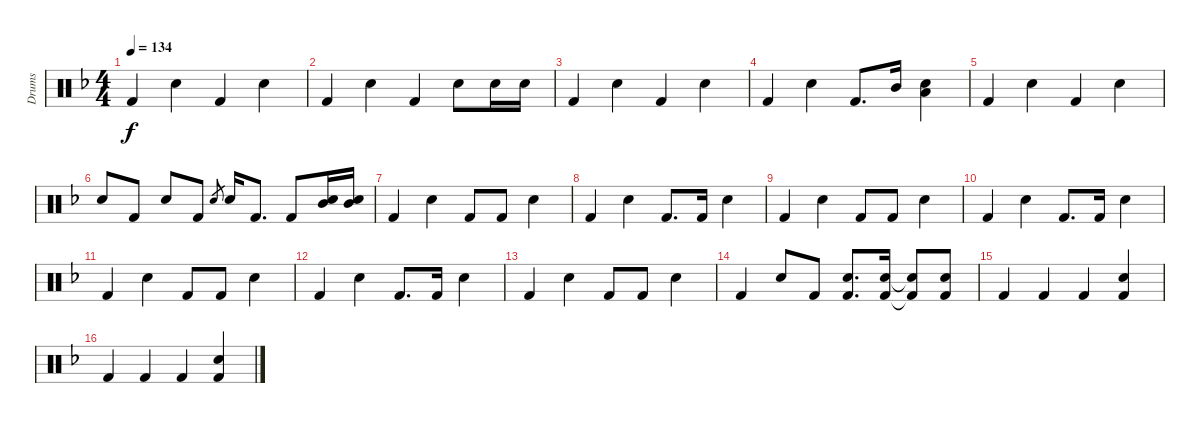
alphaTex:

\track ("Drums" "Drums") {instrument percussion}
\staff {score}
\articulation defaults
\ts (4 4)
\tempo 134
\clef neutral
\ks f "Kick (hit) 2".4{dy f} "Snare (hit) 2".4 "Kick (hit) 2".4 "Snare (hit) 2".4
|
"Kick (hit) 2".4 "Snare (hit) 2".4 "Kick (hit) 2".4 "Snare (hit) 2".8 "Snare (hit) 2".16 "Snare (hit) 2".16 |
"Kick (hit) 2".4 "Snare (hit) 2".4 "Kick (hit) 2".4 "Snare (hit) 2".4 |
"Kick (hit) 2".4 "Snare (hit) 2".4 "Kick (hit) 2".8{d} "Mid Tom (hit)".16 ("Snare (hit) 2" "Low Floor Tom (hit)").4 |
"Kick (hit) 2".4 "Snare (hit) 2".4 "Kick (hit) 2".4 "Snare (hit) 2".4 |
"Snare (hit) 2".8 "Kick (hit) 2".8 "Snare (hit) 2".8 "Kick (hit) 2".8 "Snare (hit) 2".8{gr} "Snare (hit) 2".16 "Kick (hit) 2".8{d} "Kick (hit) 2".8 ("Snare (hit) 2" "Mid Tom (hit)").16 ("Snare (hit) 2" "Mid Tom (hit)").16 |
"Kick (hit) 2".4 "Snare (hit) 2".4 "Kick (hit) 2".8 "Kick (hit) 2".8 "Snare (hit) 2".4 |
"Kick (hit) 2".4 "Snare (hit) 2".4 "Kick (hit) 2".8{d} "Kick (hit) 2".16 "Snare (hit) 2".4 |
"Kick (hit) 2".4 "Snare (hit) 2".4 "Kick (hit) 2".8 "Kick (hit) 2".8 "Snare (hit) 2".4 |
"Kick (hit) 2".4 "Snare (hit) 2".4 "Kick (hit) 2".8{d} "Kick (hit) 2".16 "Snare (hit) 2".4 |
"Kick (hit) 2".4 "Snare (hit) 2".4 "Kick (hit) 2".8 "Kick (hit) 2".8 "Snare (hit) 2".4 |
"Kick (hit) 2".4 "Snare (hit) 2".4 "Kick (hit) 2".8{d} "Kick (hit) 2".16 "Snare (hit) 2".4 |
"Kick (hit) 2".4 "Snare (hit) 2".4 "Kick (hit) 2".8 "Kick (hit) 2".8 "Snare (hit) 2".4 |
"Kick (hit) 2".4 "Snare (hit) 2".8 "Kick (hit) 2".8 ("Snare (hit) 2" "Kick (hit) 2").8{d} ("Snare (hit) 2" "Kick (hit) 2").16 ("Snare (hit) 2"{t} "Kick (hit) 2"{t}).8 ("Snare (hit) 2" "Kick (hit) 2").8 |
"Kick (hit) 2".4 "Kick (hit) 2".4 "Kick (hit) 2".4 ("Kick (hit) 2" "Snare (hit) 2").4 |
"Kick (hit) 2".4 "Kick (hit) 2".4 "Kick (hit) 2".4 ("Kick (hit) 2" "Snare (hit) 2").4
